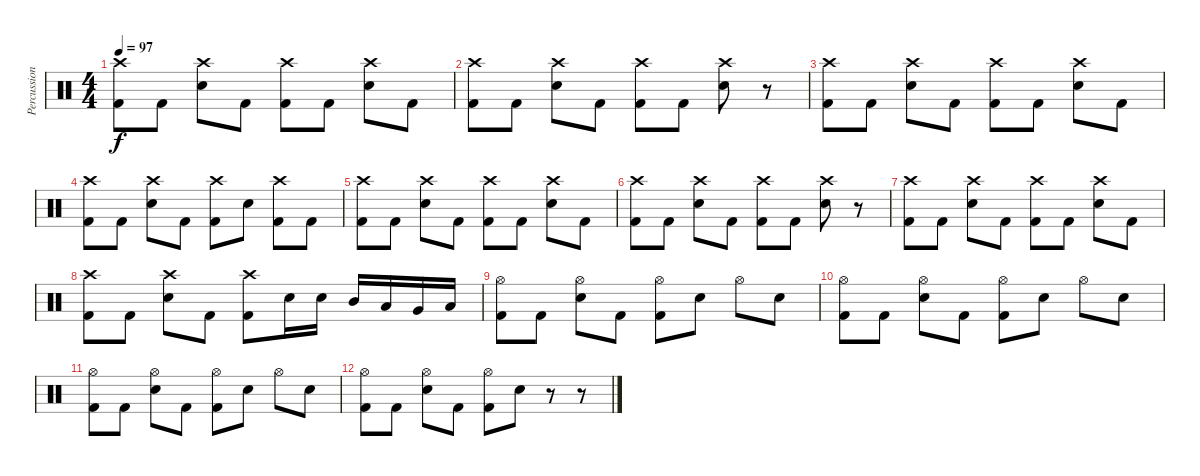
\track ("Percussion" "Percussion") {instrument percussion}
\staff {score}
\articulation defaults
\ts (4 4)
\tempo 97
\clef neutral
\ks c
("Crash high (hit)" "Kick (hit) 2").8{dy f} "Kick (hit) 2".8 ("Crash high (hit)" "Electric Snare (hit)").8 "Kick (hit) 2".8 ("Crash high (hit)" "Kick (hit) 2").8 "Kick (hit) 2".8 ("Crash high (hit)" "Electric Snare (hit)").8 "Kick (hit) 2".8 |
("Crash high (hit)" "Kick (hit) 2").8 "Kick (hit) 2".8 ("Crash high (hit)" "Electric Snare (hit)").8 "Kick (hit) 2".8 ("Crash high (hit)" "Kick (hit) 2").8 "Kick (hit) 2".8 ("Crash high (hit)" "Electric Snare (hit)").8 r.8 |
("Crash high (hit)" "Kick (hit) 2").8 "Kick (hit) 2".8 ("Crash high (hit)" "Electric Snare (hit)").8 "Kick (hit) 2".8 ("Crash high (hit)" "Kick (hit) 2").8 "Kick (hit) 2".8 ("Crash high (hit)" "Electric Snare (hit)").8 "Kick (hit) 2".8 |
("Crash high (hit)" "Kick (hit) 2").8 "Kick (hit) 2".8 ("Crash high (hit)" "Electric Snare (hit)").8 "Kick (hit) 2".8 ("Crash high (hit)" "Kick (hit) 2").8 "Electric Snare (hit)".8 ("Crash high (hit)" "Kick (hit) 2").8 "Kick (hit) 2".8 |
("Crash high (hit)" "Kick (hit) 2").8 "Kick (hit) 2".8 ("Crash high (hit)" "Electric Snare (hit)").8 "Kick (hit) 2".8 ("Crash high (hit)" "Kick (hit) 2").8 "Kick (hit) 2".8 ("Crash high (hit)" "Electric Snare (hit)").8 "Kick (hit) 2".8 |
("Crash high (hit)" "Kick (hit) 2").8 "Kick (hit) 2".8 ("Crash high (hit)" "Electric Snare (hit)").8 "Kick (hit) 2".8 ("Crash high (hit)" "Kick (hit) 2").8 "Kick (hit) 2".8 ("Crash high (hit)" "Electric Snare (hit)").8 r.8 |
("Crash high (hit)" "Kick (hit) 2").8 "Kick (hit) 2".8 ("Crash high (hit)" "Electric Snare (hit)").8 "Kick (hit) 2".8 ("Crash high (hit)" "Kick (hit) 2").8 "Kick (hit) 2".8 ("Crash high (hit)" "Electric Snare (hit)").8 "Kick (hit) 2".8 |
("Crash high (hit)" "Kick (hit) 2").8 "Kick (hit) 2".8 ("Crash high (hit)" "Electric Snare (hit)").8 "Kick (hit) 2".8 ("Crash high (hit)" "Kick (hit) 2").8 "Electric Snare (hit)".16 "Electric Snare (hit)".16 "Mid Tom (hit)".16 "Low Tom (hit)".16 "Very Low Tom (hit)".16 "Low Floor Tom (hit)".16 |
("Hi-Hat (open)" "Kick (hit) 2").8 "Kick (hit) 2".8 ("Hi-Hat (open)" "Electric Snare (hit)").8 "Kick (hit) 2".8 ("Hi-Hat (open)" "Kick (hit) 2").8 "Electric Snare (hit)".8 "Hi-Hat (open)".8 "Electric Snare (hit)".8 |
("Hi-Hat (open)" "Kick (hit) 2").8 "Kick (hit) 2".8 ("Hi-Hat (open)" "Electric Snare (hit)").8 "Kick (hit) 2".8 ("Hi-Hat (open)" "Kick (hit) 2").8 "Electric Snare (hit)".8 "Hi-Hat (open)".8 "Electric Snare (hit)".8 |
("Hi-Hat (open)" "Kick (hit) 2").8 "Kick (hit) 2".8 ("Hi-Hat (open)" "Electric Snare (hit)").8 "Kick (hit) 2".8 ("Hi-Hat (open)" "Kick (hit) 2").8 "Electric Snare (hit)".8 "Hi-Hat (open)".8 "Electric Snare (hit)".8 |
("Hi-Hat (open)" "Kick (hit) 2").8 "Kick (hit) 2".8 ("Hi-Hat (open)" "Electric Snare (hit)").8 "Kick (hit) 2".8 ("Hi-Hat (open)" "Kick (hit) 2").8 "Electric Snare (hit)".8 r.8 r.8
